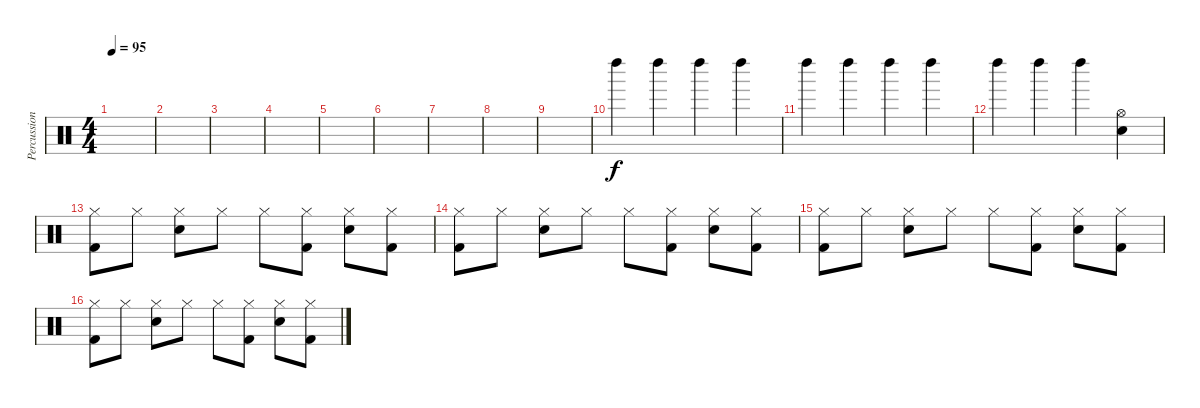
\track ("Percussion" "Percussion") {instrument percussion}
\staff {score}
\articulation defaults
\ts (4 4)
\tempo 95
\clef neutral
\ks c
|
|
|
|
|
|
|
|
|
"Left Maraca (hit)".4 "Left Maraca (hit)".4 "Left Maraca (hit)".4 "Left Maraca (hit)".4 |
"Left Maraca (hit)".4 "Left Maraca (hit)".4 "Left Maraca (hit)".4 "Left Maraca (hit)".4 |
"Left Maraca (hit)".4 "Left Maraca (hit)".4 "Left Maraca (hit)".4 ("Hi-Hat (open)" "Snare (hit) 2").4 |
("Hi-Hat (closed)" "Kick (hit) 2").8 "Hi-Hat (closed)".8 ("Hi-Hat (closed)" "Snare (hit) 2").8 "Hi-Hat (closed)".8 "Hi-Hat (closed)".8 ("Hi-Hat (closed)" "Kick (hit) 2").8 ("Hi-Hat (closed)" "Snare (hit) 2").8 ("Hi-Hat (closed)" "Kick (hit) 2").8 |
("Hi-Hat (closed)" "Kick (hit) 2").8 "Hi-Hat (closed)".8 ("Hi-Hat (closed)" "Snare (hit) 2").8 "Hi-Hat (closed)".8 "Hi-Hat (closed)".8 ("Hi-Hat (closed)" "Kick (hit) 2").8 ("Hi-Hat (closed)" "Snare (hit) 2").8 ("Hi-Hat (closed)" "Kick (hit) 2").8 |
("Hi-Hat (closed)" "Kick (hit) 2").8 "Hi-Hat (closed)".8 ("Hi-Hat (closed)" "Snare (hit) 2").8 "Hi-Hat (closed)".8 "Hi-Hat (closed)".8 ("Hi-Hat (closed)" "Kick (hit) 2").8 ("Hi-Hat (closed)" "Snare (hit) 2").8 ("Hi-Hat (closed)" "Kick (hit) 2").8 |
("Hi-Hat (closed)" "Kick (hit) 2").8 "Hi-Hat (closed)".8 ("Hi-Hat (closed)" "Snare (hit) 2").8 "Hi-Hat (closed)".8 "Hi-Hat (closed)".8 ("Hi-Hat (closed)" "Kick (hit) 2").8 ("Hi-Hat (closed)" "Snare (hit) 2").8 ("Hi-Hat (closed)" "Kick (hit) 2").8
